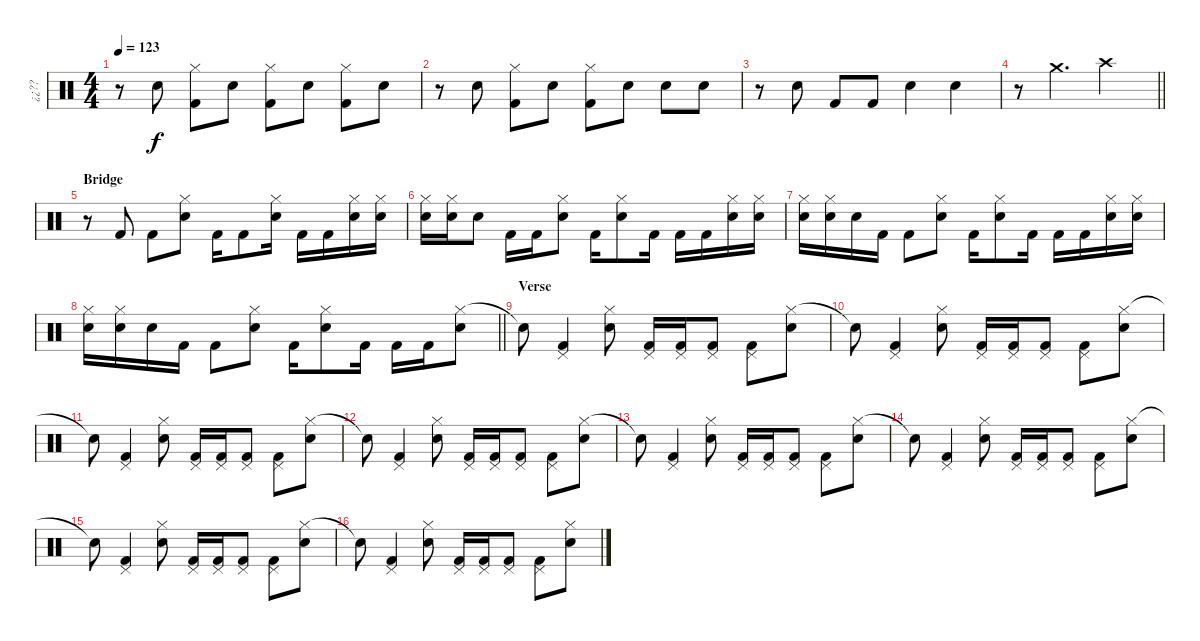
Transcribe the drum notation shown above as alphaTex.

\track ("¿¿??" "¿¿??") {instrument percussion}
\staff {score}
\articulation defaults
\ts (4 4)
\tempo 123
\clef neutral
\ks c
r.8{dy f} "Snare (hit) 2".8 ("Hi-Hat (closed)" "Kick (hit) 2").8 "Snare (hit) 2".8 ("Hi-Hat (closed)" "Kick (hit) 2").8 "Snare (hit) 2".8 ("Hi-Hat (closed)" "Kick (hit) 2").8 "Snare (hit) 2".8 |
r.8 "Snare (hit) 2".8 ("Hi-Hat (closed)" "Kick (hit) 2").8 "Snare (hit) 2".8 ("Hi-Hat (closed)" "Kick (hit) 2").8 "Snare (hit) 2".8 "Snare (hit) 2".8 "Snare (hit) 2".8 |
r.8 "Snare (hit) 2".8 "Kick (hit) 2".8 "Kick (hit) 2".8 "Snare (hit) 2".4 "Snare (hit) 2".4 |
\barLineRight lightlight
r.8 "Crash medium (hit)".4{d} "Crash high (hit)".2 |
\section ("" "Bridge")
r.8 "Kick (hit) 2".8 "Kick (hit) 2".8 ("Hi-Hat (closed)" "Snare (hit) 2").8 "Kick (hit) 2".16 "Kick (hit) 2".8 ("Hi-Hat (closed)" "Snare (hit) 2").16 "Kick (hit) 2".16 "Kick (hit) 2".16 ("Hi-Hat (closed)" "Snare (hit) 2").16 ("Hi-Hat (closed)" "Snare (hit) 2").16 |
("Hi-Hat (closed)" "Snare (hit) 2").16 ("Hi-Hat (closed)" "Snare (hit) 2").16 "Snare (hit) 2".8 "Kick (hit) 2".16 "Kick (hit) 2".16 ("Hi-Hat (closed)" "Snare (hit) 2").8 "Kick (hit) 2".16 ("Hi-Hat (closed)" "Snare (hit) 2").8 "Kick (hit) 2".16 "Kick (hit) 2".16 "Kick (hit) 2".16 ("Hi-Hat (closed)" "Snare (hit) 2").16 ("Hi-Hat (closed)" "Snare (hit) 2").16 |
("Hi-Hat (closed)" "Snare (hit) 2").16 ("Hi-Hat (closed)" "Snare (hit) 2").16 "Snare (hit) 2".16 "Kick (hit) 2".16 "Kick (hit) 2".8 ("Hi-Hat (closed)" "Snare (hit) 2").8 "Kick (hit) 2".16 ("Hi-Hat (closed)" "Snare (hit) 2").8 "Kick (hit) 2".16 "Kick (hit) 2".16 "Kick (hit) 2".16 ("Hi-Hat (closed)" "Snare (hit) 2").16 ("Hi-Hat (closed)" "Snare (hit) 2").16 |
\barLineRight lightlight
("Hi-Hat (closed)" "Snare (hit) 2").16 ("Hi-Hat (closed)" "Snare (hit) 2").16 "Snare (hit) 2".16 "Kick (hit) 2".16 "Kick (hit) 2".8 ("Hi-Hat (closed)" "Snare (hit) 2").8 "Kick (hit) 2".16 ("Hi-Hat (closed)" "Snare (hit) 2").8 "Kick (hit) 2".16 "Kick (hit) 2".16 "Kick (hit) 2".16 ("Hi-Hat (closed)" "Snare (hit) 2").8 |
\section ("" "Verse")
"Snare (hit)"{t}.8 ("Pedal Hi-Hat (hit)" "Kick (hit) 2").4 ("Hi-Hat (closed)" "Snare (hit) 2").8 ("Pedal Hi-Hat (hit)" "Kick (hit) 2").16 ("Pedal Hi-Hat (hit)" "Kick (hit) 2").16 ("Pedal Hi-Hat (hit)" "Kick (hit) 2").8 ("Pedal Hi-Hat (hit)" "Kick (hit) 2").8 ("Hi-Hat (closed)" "Snare (hit) 2").8 |
"Snare (hit)"{t}.8 ("Pedal Hi-Hat (hit)" "Kick (hit) 2").4 ("Hi-Hat (closed)" "Snare (hit) 2").8 ("Pedal Hi-Hat (hit)" "Kick (hit) 2").16 ("Pedal Hi-Hat (hit)" "Kick (hit) 2").16 ("Pedal Hi-Hat (hit)" "Kick (hit) 2").8 ("Pedal Hi-Hat (hit)" "Kick (hit) 2").8 ("Hi-Hat (closed)" "Snare (hit) 2").8 |
"Snare (hit)"{t}.8 ("Pedal Hi-Hat (hit)" "Kick (hit) 2").4 ("Hi-Hat (closed)" "Snare (hit) 2").8 ("Pedal Hi-Hat (hit)" "Kick (hit) 2").16 ("Pedal Hi-Hat (hit)" "Kick (hit) 2").16 ("Pedal Hi-Hat (hit)" "Kick (hit) 2").8 ("Pedal Hi-Hat (hit)" "Kick (hit) 2").8 ("Hi-Hat (closed)" "Snare (hit) 2").8 |
"Snare (hit)"{t}.8 ("Pedal Hi-Hat (hit)" "Kick (hit) 2").4 ("Hi-Hat (closed)" "Snare (hit) 2").8 ("Pedal Hi-Hat (hit)" "Kick (hit) 2").16 ("Pedal Hi-Hat (hit)" "Kick (hit) 2").16 ("Pedal Hi-Hat (hit)" "Kick (hit) 2").8 ("Pedal Hi-Hat (hit)" "Kick (hit) 2").8 ("Hi-Hat (closed)" "Snare (hit) 2").8 |
"Snare (hit)"{t}.8 ("Pedal Hi-Hat (hit)" "Kick (hit) 2").4 ("Hi-Hat (closed)" "Snare (hit) 2").8 ("Pedal Hi-Hat (hit)" "Kick (hit) 2").16 ("Pedal Hi-Hat (hit)" "Kick (hit) 2").16 ("Pedal Hi-Hat (hit)" "Kick (hit) 2").8 ("Pedal Hi-Hat (hit)" "Kick (hit) 2").8 ("Hi-Hat (closed)" "Snare (hit) 2").8 |
"Snare (hit)"{t}.8 ("Pedal Hi-Hat (hit)" "Kick (hit) 2").4 ("Hi-Hat (closed)" "Snare (hit) 2").8 ("Pedal Hi-Hat (hit)" "Kick (hit) 2").16 ("Pedal Hi-Hat (hit)" "Kick (hit) 2").16 ("Pedal Hi-Hat (hit)" "Kick (hit) 2").8 ("Pedal Hi-Hat (hit)" "Kick (hit) 2").8 ("Hi-Hat (closed)" "Snare (hit) 2").8 |
"Snare (hit)"{t}.8 ("Pedal Hi-Hat (hit)" "Kick (hit) 2").4 ("Hi-Hat (closed)" "Snare (hit) 2").8 ("Pedal Hi-Hat (hit)" "Kick (hit) 2").16 ("Pedal Hi-Hat (hit)" "Kick (hit) 2").16 ("Pedal Hi-Hat (hit)" "Kick (hit) 2").8 ("Pedal Hi-Hat (hit)" "Kick (hit) 2").8 ("Hi-Hat (closed)" "Snare (hit) 2").8 |
"Snare (hit)"{t}.8 ("Pedal Hi-Hat (hit)" "Kick (hit) 2").4 ("Hi-Hat (closed)" "Snare (hit) 2").8 ("Pedal Hi-Hat (hit)" "Kick (hit) 2").16 ("Pedal Hi-Hat (hit)" "Kick (hit) 2").16 ("Pedal Hi-Hat (hit)" "Kick (hit) 2").8 ("Pedal Hi-Hat (hit)" "Kick (hit) 2").8 ("Hi-Hat (closed)" "Snare (hit) 2").8
